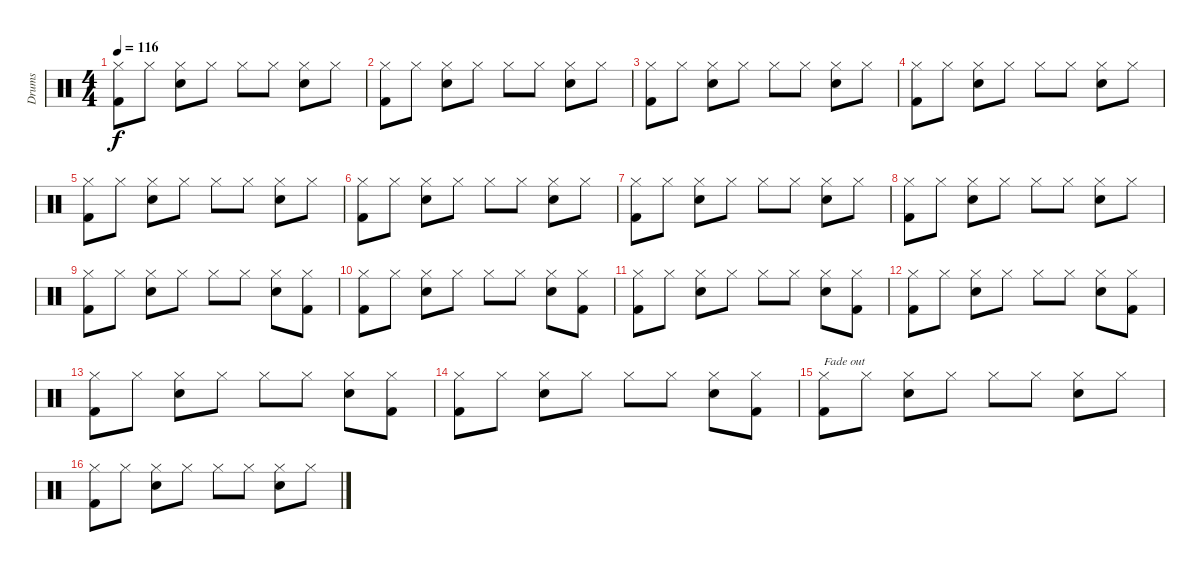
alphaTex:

\track ("Drums" "Drums") {instrument percussion}
\staff {score}
\articulation defaults
\ts (4 4)
\tempo 116
\clef neutral
\ks c
("Kick (hit) 2" "Hi-Hat (closed)").8{dy f} "Hi-Hat (closed)".8 ("Snare (hit) 2" "Hi-Hat (closed)").8 "Hi-Hat (closed)".8 "Hi-Hat (closed)".8 "Hi-Hat (closed)".8 ("Snare (hit) 2" "Hi-Hat (closed)").8 "Hi-Hat (closed)".8 |
("Kick (hit) 2" "Hi-Hat (closed)").8 "Hi-Hat (closed)".8 ("Snare (hit) 2" "Hi-Hat (closed)").8 "Hi-Hat (closed)".8 "Hi-Hat (closed)".8 "Hi-Hat (closed)".8 ("Snare (hit) 2" "Hi-Hat (closed)").8 "Hi-Hat (closed)".8 |
("Kick (hit) 2" "Hi-Hat (closed)").8 "Hi-Hat (closed)".8 ("Snare (hit) 2" "Hi-Hat (closed)").8 "Hi-Hat (closed)".8 "Hi-Hat (closed)".8 "Hi-Hat (closed)".8 ("Snare (hit) 2" "Hi-Hat (closed)").8 "Hi-Hat (closed)".8 |
("Kick (hit) 2" "Hi-Hat (closed)").8 "Hi-Hat (closed)".8 ("Snare (hit) 2" "Hi-Hat (closed)").8 "Hi-Hat (closed)".8 "Hi-Hat (closed)".8 "Hi-Hat (closed)".8 ("Snare (hit) 2" "Hi-Hat (closed)").8 "Hi-Hat (closed)".8 |
("Kick (hit) 2" "Hi-Hat (closed)").8 "Hi-Hat (closed)".8 ("Snare (hit) 2" "Hi-Hat (closed)").8 "Hi-Hat (closed)".8 "Hi-Hat (closed)".8 "Hi-Hat (closed)".8 ("Snare (hit) 2" "Hi-Hat (closed)").8 "Hi-Hat (closed)".8 |
("Kick (hit) 2" "Hi-Hat (closed)").8 "Hi-Hat (closed)".8 ("Snare (hit) 2" "Hi-Hat (closed)").8 "Hi-Hat (closed)".8 "Hi-Hat (closed)".8 "Hi-Hat (closed)".8 ("Snare (hit) 2" "Hi-Hat (closed)").8 "Hi-Hat (closed)".8 |
("Kick (hit) 2" "Hi-Hat (closed)").8 "Hi-Hat (closed)".8 ("Snare (hit) 2" "Hi-Hat (closed)").8 "Hi-Hat (closed)".8 "Hi-Hat (closed)".8 "Hi-Hat (closed)".8 ("Snare (hit) 2" "Hi-Hat (closed)").8 "Hi-Hat (closed)".8 |
("Kick (hit) 2" "Hi-Hat (closed)").8 "Hi-Hat (closed)".8 ("Snare (hit) 2" "Hi-Hat (closed)").8 "Hi-Hat (closed)".8 "Hi-Hat (closed)".8 "Hi-Hat (closed)".8 ("Snare (hit) 2" "Hi-Hat (closed)").8 "Hi-Hat (closed)".8 |
("Kick (hit) 2" "Hi-Hat (closed)").8 "Hi-Hat (closed)".8 ("Snare (hit) 2" "Hi-Hat (closed)").8 "Hi-Hat (closed)".8 "Hi-Hat (closed)".8 "Hi-Hat (closed)".8 ("Snare (hit) 2" "Hi-Hat (closed)").8 ("Kick (hit) 2" "Hi-Hat (closed)").8 |
("Kick (hit) 2" "Hi-Hat (closed)").8 "Hi-Hat (closed)".8 ("Snare (hit) 2" "Hi-Hat (closed)").8 "Hi-Hat (closed)".8 "Hi-Hat (closed)".8 "Hi-Hat (closed)".8 ("Snare (hit) 2" "Hi-Hat (closed)").8 ("Kick (hit) 2" "Hi-Hat (closed)").8 |
("Kick (hit) 2" "Hi-Hat (closed)").8 "Hi-Hat (closed)".8 ("Snare (hit) 2" "Hi-Hat (closed)").8 "Hi-Hat (closed)".8 "Hi-Hat (closed)".8 "Hi-Hat (closed)".8 ("Snare (hit) 2" "Hi-Hat (closed)").8 ("Kick (hit) 2" "Hi-Hat (closed)").8 |
("Kick (hit) 2" "Hi-Hat (closed)").8 "Hi-Hat (closed)".8 ("Snare (hit) 2" "Hi-Hat (closed)").8 "Hi-Hat (closed)".8 "Hi-Hat (closed)".8 "Hi-Hat (closed)".8 ("Snare (hit) 2" "Hi-Hat (closed)").8 ("Kick (hit) 2" "Hi-Hat (closed)").8 |
("Kick (hit) 2" "Hi-Hat (closed)").8 "Hi-Hat (closed)".8 ("Snare (hit) 2" "Hi-Hat (closed)").8 "Hi-Hat (closed)".8 "Hi-Hat (closed)".8 "Hi-Hat (closed)".8 ("Snare (hit) 2" "Hi-Hat (closed)").8 ("Kick (hit) 2" "Hi-Hat (closed)").8 |
("Kick (hit) 2" "Hi-Hat (closed)").8 "Hi-Hat (closed)".8 ("Snare (hit) 2" "Hi-Hat (closed)").8 "Hi-Hat (closed)".8 "Hi-Hat (closed)".8 "Hi-Hat (closed)".8 ("Snare (hit) 2" "Hi-Hat (closed)").8 ("Kick (hit) 2" "Hi-Hat (closed)").8 |
("Kick (hit) 2" "Hi-Hat (closed)").8{txt "Fade out"} "Hi-Hat (closed)".8 ("Snare (hit) 2" "Hi-Hat (closed)").8 "Hi-Hat (closed)".8 "Hi-Hat (closed)".8 "Hi-Hat (closed)".8 ("Snare (hit) 2" "Hi-Hat (closed)").8 "Hi-Hat (closed)".8 |
("Kick (hit) 2" "Hi-Hat (closed)").8 "Hi-Hat (closed)".8 ("Snare (hit) 2" "Hi-Hat (closed)").8 "Hi-Hat (closed)".8 "Hi-Hat (closed)".8 "Hi-Hat (closed)".8 ("Snare (hit) 2" "Hi-Hat (closed)").8 "Hi-Hat (closed)".8
